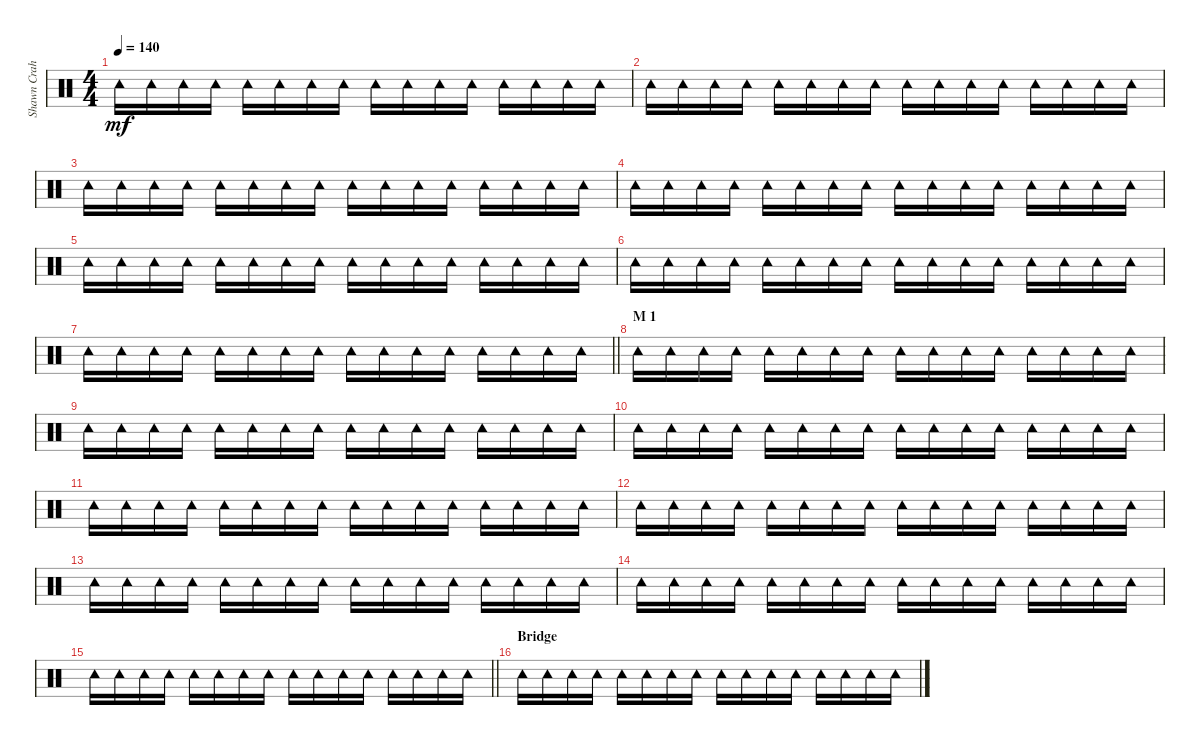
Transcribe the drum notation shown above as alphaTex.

\track ("Shawn Crahan" "Shawn Crah") {instrument percussion}
\staff {score}
\articulation defaults
\ts (4 4)
\tempo 140
\clef neutral
\ks c "Tambourine (hit)".16{dy mf} "Tambourine (hit)".16 "Tambourine (hit)".16 "Tambourine (hit)".16 "Tambourine (hit)".16 "Tambourine (hit)".16 "Tambourine (hit)".16 "Tambourine (hit)".16 "Tambourine (hit)".16 "Tambourine (hit)".16 "Tambourine (hit)".16 "Tambourine (hit)".16 "Tambourine (hit)".16 "Tambourine (hit)".16 "Tambourine (hit)".16 "Tambourine (hit)".16
|
"Tambourine (hit)".16 "Tambourine (hit)".16 "Tambourine (hit)".16 "Tambourine (hit)".16 "Tambourine (hit)".16 "Tambourine (hit)".16 "Tambourine (hit)".16 "Tambourine (hit)".16 "Tambourine (hit)".16 "Tambourine (hit)".16 "Tambourine (hit)".16 "Tambourine (hit)".16 "Tambourine (hit)".16 "Tambourine (hit)".16 "Tambourine (hit)".16 "Tambourine (hit)".16 |
"Tambourine (hit)".16 "Tambourine (hit)".16 "Tambourine (hit)".16 "Tambourine (hit)".16 "Tambourine (hit)".16 "Tambourine (hit)".16 "Tambourine (hit)".16 "Tambourine (hit)".16 "Tambourine (hit)".16 "Tambourine (hit)".16 "Tambourine (hit)".16 "Tambourine (hit)".16 "Tambourine (hit)".16 "Tambourine (hit)".16 "Tambourine (hit)".16 "Tambourine (hit)".16 |
"Tambourine (hit)".16 "Tambourine (hit)".16 "Tambourine (hit)".16 "Tambourine (hit)".16 "Tambourine (hit)".16 "Tambourine (hit)".16 "Tambourine (hit)".16 "Tambourine (hit)".16 "Tambourine (hit)".16 "Tambourine (hit)".16 "Tambourine (hit)".16 "Tambourine (hit)".16 "Tambourine (hit)".16 "Tambourine (hit)".16 "Tambourine (hit)".16 "Tambourine (hit)".16 |
"Tambourine (hit)".16 "Tambourine (hit)".16 "Tambourine (hit)".16 "Tambourine (hit)".16 "Tambourine (hit)".16 "Tambourine (hit)".16 "Tambourine (hit)".16 "Tambourine (hit)".16 "Tambourine (hit)".16 "Tambourine (hit)".16 "Tambourine (hit)".16 "Tambourine (hit)".16 "Tambourine (hit)".16 "Tambourine (hit)".16 "Tambourine (hit)".16 "Tambourine (hit)".16 |
"Tambourine (hit)".16 "Tambourine (hit)".16 "Tambourine (hit)".16 "Tambourine (hit)".16 "Tambourine (hit)".16 "Tambourine (hit)".16 "Tambourine (hit)".16 "Tambourine (hit)".16 "Tambourine (hit)".16 "Tambourine (hit)".16 "Tambourine (hit)".16 "Tambourine (hit)".16 "Tambourine (hit)".16 "Tambourine (hit)".16 "Tambourine (hit)".16 "Tambourine (hit)".16 |
\barLineRight lightlight "Tambourine (hit)".16 "Tambourine (hit)".16 "Tambourine (hit)".16 "Tambourine (hit)".16 "Tambourine (hit)".16 "Tambourine (hit)".16 "Tambourine (hit)".16 "Tambourine (hit)".16 "Tambourine (hit)".16 "Tambourine (hit)".16 "Tambourine (hit)".16 "Tambourine (hit)".16 "Tambourine (hit)".16 "Tambourine (hit)".16 "Tambourine (hit)".16 "Tambourine (hit)".16
|
\section ("" "M 1")
"Tambourine (hit)".16 "Tambourine (hit)".16 "Tambourine (hit)".16 "Tambourine (hit)".16 "Tambourine (hit)".16 "Tambourine (hit)".16 "Tambourine (hit)".16 "Tambourine (hit)".16 "Tambourine (hit)".16 "Tambourine (hit)".16 "Tambourine (hit)".16 "Tambourine (hit)".16 "Tambourine (hit)".16 "Tambourine (hit)".16 "Tambourine (hit)".16 "Tambourine (hit)".16 |
"Tambourine (hit)".16 "Tambourine (hit)".16 "Tambourine (hit)".16 "Tambourine (hit)".16 "Tambourine (hit)".16 "Tambourine (hit)".16 "Tambourine (hit)".16 "Tambourine (hit)".16 "Tambourine (hit)".16 "Tambourine (hit)".16 "Tambourine (hit)".16 "Tambourine (hit)".16 "Tambourine (hit)".16 "Tambourine (hit)".16 "Tambourine (hit)".16 "Tambourine (hit)".16 |
"Tambourine (hit)".16 "Tambourine (hit)".16 "Tambourine (hit)".16 "Tambourine (hit)".16 "Tambourine (hit)".16 "Tambourine (hit)".16 "Tambourine (hit)".16 "Tambourine (hit)".16 "Tambourine (hit)".16 "Tambourine (hit)".16 "Tambourine (hit)".16 "Tambourine (hit)".16 "Tambourine (hit)".16 "Tambourine (hit)".16 "Tambourine (hit)".16 "Tambourine (hit)".16 |
"Tambourine (hit)".16 "Tambourine (hit)".16 "Tambourine (hit)".16 "Tambourine (hit)".16 "Tambourine (hit)".16 "Tambourine (hit)".16 "Tambourine (hit)".16 "Tambourine (hit)".16 "Tambourine (hit)".16 "Tambourine (hit)".16 "Tambourine (hit)".16 "Tambourine (hit)".16 "Tambourine (hit)".16 "Tambourine (hit)".16 "Tambourine (hit)".16 "Tambourine (hit)".16 |
"Tambourine (hit)".16 "Tambourine (hit)".16 "Tambourine (hit)".16 "Tambourine (hit)".16 "Tambourine (hit)".16 "Tambourine (hit)".16 "Tambourine (hit)".16 "Tambourine (hit)".16 "Tambourine (hit)".16 "Tambourine (hit)".16 "Tambourine (hit)".16 "Tambourine (hit)".16 "Tambourine (hit)".16 "Tambourine (hit)".16 "Tambourine (hit)".16 "Tambourine (hit)".16 |
"Tambourine (hit)".16 "Tambourine (hit)".16 "Tambourine (hit)".16 "Tambourine (hit)".16 "Tambourine (hit)".16 "Tambourine (hit)".16 "Tambourine (hit)".16 "Tambourine (hit)".16 "Tambourine (hit)".16 "Tambourine (hit)".16 "Tambourine (hit)".16 "Tambourine (hit)".16 "Tambourine (hit)".16 "Tambourine (hit)".16 "Tambourine (hit)".16 "Tambourine (hit)".16 |
"Tambourine (hit)".16 "Tambourine (hit)".16 "Tambourine (hit)".16 "Tambourine (hit)".16 "Tambourine (hit)".16 "Tambourine (hit)".16 "Tambourine (hit)".16 "Tambourine (hit)".16 "Tambourine (hit)".16 "Tambourine (hit)".16 "Tambourine (hit)".16 "Tambourine (hit)".16 "Tambourine (hit)".16 "Tambourine (hit)".16 "Tambourine (hit)".16 "Tambourine (hit)".16 |
\barLineRight lightlight "Tambourine (hit)".16 "Tambourine (hit)".16 "Tambourine (hit)".16 "Tambourine (hit)".16 "Tambourine (hit)".16 "Tambourine (hit)".16 "Tambourine (hit)".16 "Tambourine (hit)".16 "Tambourine (hit)".16 "Tambourine (hit)".16 "Tambourine (hit)".16 "Tambourine (hit)".16 "Tambourine (hit)".16 "Tambourine (hit)".16 "Tambourine (hit)".16 "Tambourine (hit)".16
|
\section ("" "Bridge")
"Tambourine (hit)".16 "Tambourine (hit)".16 "Tambourine (hit)".16 "Tambourine (hit)".16 "Tambourine (hit)".16 "Tambourine (hit)".16 "Tambourine (hit)".16 "Tambourine (hit)".16 "Tambourine (hit)".16 "Tambourine (hit)".16 "Tambourine (hit)".16 "Tambourine (hit)".16 "Tambourine (hit)".16 "Tambourine (hit)".16 "Tambourine (hit)".16 "Tambourine (hit)".16
